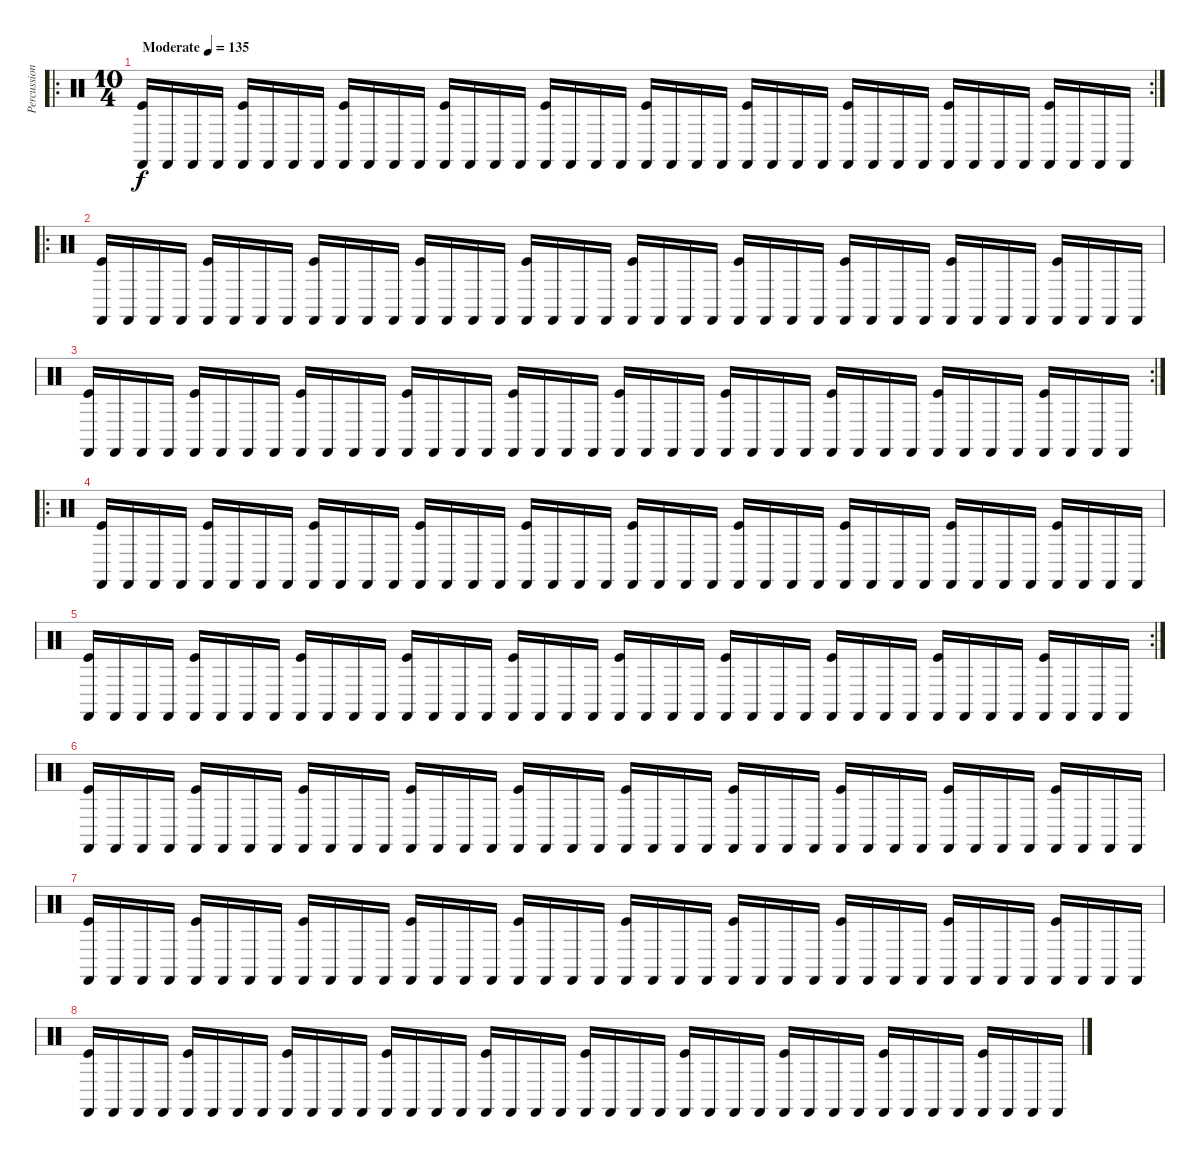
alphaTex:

\track ("Percussion" "Percussion") {instrument percussion}
\staff {score}
\articulation defaults
\ro
\rc 2
\ts (10 4)
\tempo (135 "Moderate")
\clef neutral
\ks c
("Kick (hit)" "Castanets (hit)").16{dy f} "Castanets (hit)".16 "Castanets (hit)".16 "Castanets (hit)".16 ("Kick (hit)" "Castanets (hit)").16 "Castanets (hit)".16 "Castanets (hit)".16 "Castanets (hit)".16 ("Kick (hit)" "Castanets (hit)").16 "Castanets (hit)".16 "Castanets (hit)".16 "Castanets (hit)".16 ("Kick (hit)" "Castanets (hit)").16 "Castanets (hit)".16 "Castanets (hit)".16 "Castanets (hit)".16 ("Kick (hit)" "Castanets (hit)").16 "Castanets (hit)".16 "Castanets (hit)".16 "Castanets (hit)".16 ("Kick (hit)" "Castanets (hit)").16 "Castanets (hit)".16 "Castanets (hit)".16 "Castanets (hit)".16 ("Kick (hit)" "Castanets (hit)").16 "Castanets (hit)".16 "Castanets (hit)".16 "Castanets (hit)".16 ("Kick (hit)" "Castanets (hit)").16 "Castanets (hit)".16 "Castanets (hit)".16 "Castanets (hit)".16 ("Kick (hit)" "Castanets (hit)").16 "Castanets (hit)".16 "Castanets (hit)".16 "Castanets (hit)".16 ("Kick (hit)" "Castanets (hit)").16 "Castanets (hit)".16 "Castanets (hit)".16 "Castanets (hit)".16 |
\ro
("Kick (hit)" "Castanets (hit)").16 "Castanets (hit)".16 "Castanets (hit)".16 "Castanets (hit)".16 ("Kick (hit)" "Castanets (hit)").16 "Castanets (hit)".16 "Castanets (hit)".16 "Castanets (hit)".16 ("Kick (hit)" "Castanets (hit)").16 "Castanets (hit)".16 "Castanets (hit)".16 "Castanets (hit)".16 ("Kick (hit)" "Castanets (hit)").16 "Castanets (hit)".16 "Castanets (hit)".16 "Castanets (hit)".16 ("Kick (hit)" "Castanets (hit)").16 "Castanets (hit)".16 "Castanets (hit)".16 "Castanets (hit)".16 ("Kick (hit)" "Castanets (hit)").16 "Castanets (hit)".16 "Castanets (hit)".16 "Castanets (hit)".16 ("Kick (hit)" "Castanets (hit)").16 "Castanets (hit)".16 "Castanets (hit)".16 "Castanets (hit)".16 ("Kick (hit)" "Castanets (hit)").16 "Castanets (hit)".16 "Castanets (hit)".16 "Castanets (hit)".16 ("Kick (hit)" "Castanets (hit)").16 "Castanets (hit)".16 "Castanets (hit)".16 "Castanets (hit)".16 ("Kick (hit)" "Castanets (hit)").16 "Castanets (hit)".16 "Castanets (hit)".16 "Castanets (hit)".16 |
\rc 2
("Kick (hit)" "Castanets (hit)").16 "Castanets (hit)".16 "Castanets (hit)".16 "Castanets (hit)".16 ("Kick (hit)" "Castanets (hit)").16 "Castanets (hit)".16 "Castanets (hit)".16 "Castanets (hit)".16 ("Kick (hit)" "Castanets (hit)").16 "Castanets (hit)".16 "Castanets (hit)".16 "Castanets (hit)".16 ("Kick (hit)" "Castanets (hit)").16 "Castanets (hit)".16 "Castanets (hit)".16 "Castanets (hit)".16 ("Kick (hit)" "Castanets (hit)").16 "Castanets (hit)".16 "Castanets (hit)".16 "Castanets (hit)".16 ("Kick (hit)" "Castanets (hit)").16 "Castanets (hit)".16 "Castanets (hit)".16 "Castanets (hit)".16 ("Kick (hit)" "Castanets (hit)").16 "Castanets (hit)".16 "Castanets (hit)".16 "Castanets (hit)".16 ("Kick (hit)" "Castanets (hit)").16 "Castanets (hit)".16 "Castanets (hit)".16 "Castanets (hit)".16 ("Kick (hit)" "Castanets (hit)").16 "Castanets (hit)".16 "Castanets (hit)".16 "Castanets (hit)".16 ("Kick (hit)" "Castanets (hit)").16 "Castanets (hit)".16 "Castanets (hit)".16 "Castanets (hit)".16 |
\ro
("Kick (hit)" "Castanets (hit)").16 "Castanets (hit)".16 "Castanets (hit)".16 "Castanets (hit)".16 ("Kick (hit)" "Castanets (hit)").16 "Castanets (hit)".16 "Castanets (hit)".16 "Castanets (hit)".16 ("Kick (hit)" "Castanets (hit)").16 "Castanets (hit)".16 "Castanets (hit)".16 "Castanets (hit)".16 ("Kick (hit)" "Castanets (hit)").16 "Castanets (hit)".16 "Castanets (hit)".16 "Castanets (hit)".16 ("Kick (hit)" "Castanets (hit)").16 "Castanets (hit)".16 "Castanets (hit)".16 "Castanets (hit)".16 ("Kick (hit)" "Castanets (hit)").16 "Castanets (hit)".16 "Castanets (hit)".16 "Castanets (hit)".16 ("Kick (hit)" "Castanets (hit)").16 "Castanets (hit)".16 "Castanets (hit)".16 "Castanets (hit)".16 ("Kick (hit)" "Castanets (hit)").16 "Castanets (hit)".16 "Castanets (hit)".16 "Castanets (hit)".16 ("Kick (hit)" "Castanets (hit)").16 "Castanets (hit)".16 "Castanets (hit)".16 "Castanets (hit)".16 ("Kick (hit)" "Castanets (hit)").16 "Castanets (hit)".16 "Castanets (hit)".16 "Castanets (hit)".16 |
\rc 2
("Kick (hit)" "Castanets (hit)").16 "Castanets (hit)".16 "Castanets (hit)".16 "Castanets (hit)".16 ("Kick (hit)" "Castanets (hit)").16 "Castanets (hit)".16 "Castanets (hit)".16 "Castanets (hit)".16 ("Kick (hit)" "Castanets (hit)").16 "Castanets (hit)".16 "Castanets (hit)".16 "Castanets (hit)".16 ("Kick (hit)" "Castanets (hit)").16 "Castanets (hit)".16 "Castanets (hit)".16 "Castanets (hit)".16 ("Kick (hit)" "Castanets (hit)").16 "Castanets (hit)".16 "Castanets (hit)".16 "Castanets (hit)".16 ("Kick (hit)" "Castanets (hit)").16 "Castanets (hit)".16 "Castanets (hit)".16 "Castanets (hit)".16 ("Kick (hit)" "Castanets (hit)").16 "Castanets (hit)".16 "Castanets (hit)".16 "Castanets (hit)".16 ("Kick (hit)" "Castanets (hit)").16 "Castanets (hit)".16 "Castanets (hit)".16 "Castanets (hit)".16 ("Kick (hit)" "Castanets (hit)").16 "Castanets (hit)".16 "Castanets (hit)".16 "Castanets (hit)".16 ("Kick (hit)" "Castanets (hit)").16 "Castanets (hit)".16 "Castanets (hit)".16 "Castanets (hit)".16 |
("Kick (hit)" "Castanets (hit)").16 "Castanets (hit)".16 "Castanets (hit)".16 "Castanets (hit)".16 ("Kick (hit)" "Castanets (hit)").16 "Castanets (hit)".16 "Castanets (hit)".16 "Castanets (hit)".16 ("Kick (hit)" "Castanets (hit)").16 "Castanets (hit)".16 "Castanets (hit)".16 "Castanets (hit)".16 ("Kick (hit)" "Castanets (hit)").16 "Castanets (hit)".16 "Castanets (hit)".16 "Castanets (hit)".16 ("Kick (hit)" "Castanets (hit)").16 "Castanets (hit)".16 "Castanets (hit)".16 "Castanets (hit)".16 ("Kick (hit)" "Castanets (hit)").16 "Castanets (hit)".16 "Castanets (hit)".16 "Castanets (hit)".16 ("Kick (hit)" "Castanets (hit)").16 "Castanets (hit)".16 "Castanets (hit)".16 "Castanets (hit)".16 ("Kick (hit)" "Castanets (hit)").16 "Castanets (hit)".16 "Castanets (hit)".16 "Castanets (hit)".16 ("Kick (hit)" "Castanets (hit)").16 "Castanets (hit)".16 "Castanets (hit)".16 "Castanets (hit)".16 ("Kick (hit)" "Castanets (hit)").16 "Castanets (hit)".16 "Castanets (hit)".16 "Castanets (hit)".16 |
("Kick (hit)" "Castanets (hit)").16 "Castanets (hit)".16 "Castanets (hit)".16 "Castanets (hit)".16 ("Kick (hit)" "Castanets (hit)").16 "Castanets (hit)".16 "Castanets (hit)".16 "Castanets (hit)".16 ("Kick (hit)" "Castanets (hit)").16 "Castanets (hit)".16 "Castanets (hit)".16 "Castanets (hit)".16 ("Kick (hit)" "Castanets (hit)").16 "Castanets (hit)".16 "Castanets (hit)".16 "Castanets (hit)".16 ("Kick (hit)" "Castanets (hit)").16 "Castanets (hit)".16 "Castanets (hit)".16 "Castanets (hit)".16 ("Kick (hit)" "Castanets (hit)").16 "Castanets (hit)".16 "Castanets (hit)".16 "Castanets (hit)".16 ("Kick (hit)" "Castanets (hit)").16 "Castanets (hit)".16 "Castanets (hit)".16 "Castanets (hit)".16 ("Kick (hit)" "Castanets (hit)").16 "Castanets (hit)".16 "Castanets (hit)".16 "Castanets (hit)".16 ("Kick (hit)" "Castanets (hit)").16 "Castanets (hit)".16 "Castanets (hit)".16 "Castanets (hit)".16 ("Kick (hit)" "Castanets (hit)").16 "Castanets (hit)".16 "Castanets (hit)".16 "Castanets (hit)".16 |
("Kick (hit)" "Castanets (hit)").16 "Castanets (hit)".16 "Castanets (hit)".16 "Castanets (hit)".16 ("Kick (hit)" "Castanets (hit)").16 "Castanets (hit)".16 "Castanets (hit)".16 "Castanets (hit)".16 ("Kick (hit)" "Castanets (hit)").16 "Castanets (hit)".16 "Castanets (hit)".16 "Castanets (hit)".16 ("Kick (hit)" "Castanets (hit)").16 "Castanets (hit)".16 "Castanets (hit)".16 "Castanets (hit)".16 ("Kick (hit)" "Castanets (hit)").16 "Castanets (hit)".16 "Castanets (hit)".16 "Castanets (hit)".16 ("Kick (hit)" "Castanets (hit)").16 "Castanets (hit)".16 "Castanets (hit)".16 "Castanets (hit)".16 ("Kick (hit)" "Castanets (hit)").16 "Castanets (hit)".16 "Castanets (hit)".16 "Castanets (hit)".16 ("Kick (hit)" "Castanets (hit)").16 "Castanets (hit)".16 "Castanets (hit)".16 "Castanets (hit)".16 ("Kick (hit)" "Castanets (hit)").16 "Castanets (hit)".16 "Castanets (hit)".16 "Castanets (hit)".16 ("Kick (hit)" "Castanets (hit)").16 "Castanets (hit)".16 "Castanets (hit)".16 "Castanets (hit)".16
